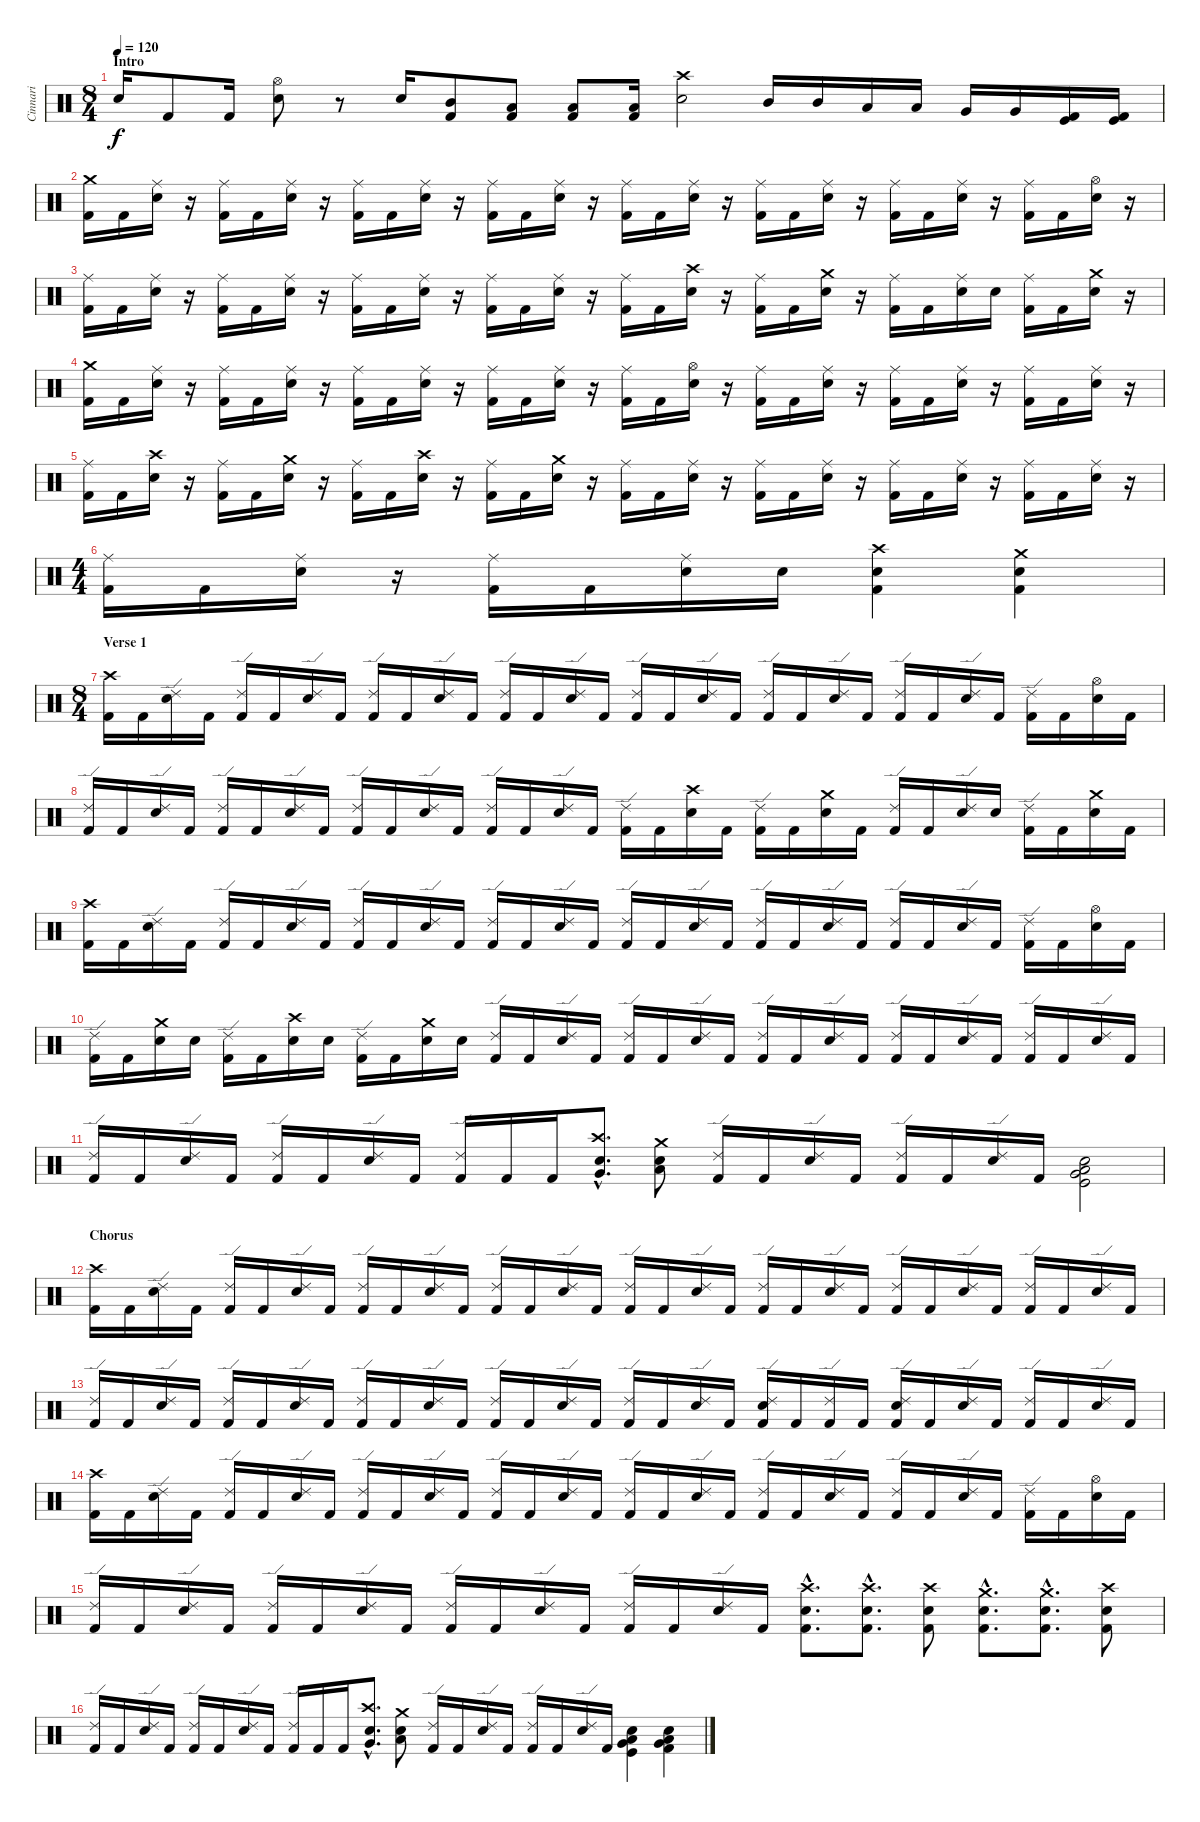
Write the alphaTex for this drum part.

\track ("Cinnari" "Cinnari") {instrument percussion}
\staff {score}
\articulation defaults
\ts (8 4)
\section ("" "Intro")
\tempo 120
\clef neutral
\ks c "Snare (hit) 2".16{dy f} "Kick (hit) 2".8 "Kick (hit) 2".16
("Hi-Hat (open)" "Snare (hit) 2").8 r.8 "Snare (hit) 2".16 ("Mid Tom (hit)" "Kick (hit) 2").8 ("Low Tom (hit)" "Kick (hit) 2").8 ("Low Tom (hit)" "Kick (hit) 2").8 ("Low Tom (hit)" "Kick (hit) 2").16 ("Crash high (hit)" "Snare (hit) 2").2 "Mid Tom (hit)".16 "Mid Tom (hit)".16 "Low Tom (hit)".16 "Low Tom (hit)".16 "Very Low Tom (hit)".16 "Very Low Tom (hit)".16 ("Kick (hit)" "Kick (hit) 2").16 ("Kick (hit)" "Kick (hit) 2").16 |
("Crash medium (hit)" "Kick (hit) 2").16 "Kick (hit) 2".16 ("Ride (middle)" "Snare (hit) 2").16 r.16 ("Ride (middle)" "Kick (hit) 2").16 "Kick (hit) 2".16 ("Ride (middle)" "Snare (hit) 2").16 r.16 ("Ride (middle)" "Kick (hit) 2").16 "Kick (hit) 2".16 ("Ride (middle)" "Snare (hit) 2").16 r.16 ("Ride (middle)" "Kick (hit) 2").16 "Kick (hit) 2".16 ("Ride (middle)" "Snare (hit) 2").16 r.16 ("Ride (middle)" "Kick (hit) 2").16 "Kick (hit) 2".16 ("Ride (middle)" "Snare (hit) 2").16 r.16 ("Ride (middle)" "Kick (hit) 2").16 "Kick (hit) 2".16 ("Ride (middle)" "Snare (hit) 2").16 r.16 ("Ride (middle)" "Kick (hit) 2").16 "Kick (hit) 2".16 ("Ride (middle)" "Snare (hit) 2").16 r.16 ("Ride (middle)" "Kick (hit) 2").16 "Kick (hit) 2".16 ("Hi-Hat (open)" "Snare (hit) 2").16 r.16 |
("Ride (middle)" "Kick (hit) 2").16 "Kick (hit) 2".16 ("Ride (middle)" "Snare (hit) 2").16 r.16 ("Ride (middle)" "Kick (hit) 2").16 "Kick (hit) 2".16 ("Ride (middle)" "Snare (hit) 2").16 r.16 ("Ride (middle)" "Kick (hit) 2").16 "Kick (hit) 2".16 ("Ride (middle)" "Snare (hit) 2").16 r.16 ("Ride (middle)" "Kick (hit) 2").16 "Kick (hit) 2".16 ("Ride (middle)" "Snare (hit) 2").16 r.16 ("Ride (middle)" "Kick (hit) 2").16 "Kick (hit) 2".16 ("Crash high (hit)" "Snare (hit) 2").16 r.16 ("Ride (middle)" "Kick (hit) 2").16 "Kick (hit) 2".16 ("Crash medium (hit)" "Snare (hit) 2").16 r.16 ("Ride (middle)" "Kick (hit) 2").16 "Kick (hit) 2".16 ("Ride (middle)" "Snare (hit) 2").16 "Snare (hit) 2".16 ("Ride (middle)" "Kick (hit) 2").16 "Kick (hit) 2".16 ("Crash medium (hit)" "Snare (hit) 2").16 r.16 |
("Crash medium (hit)" "Kick (hit) 2").16 "Kick (hit) 2".16 ("Ride (middle)" "Snare (hit) 2").16 r.16 ("Ride (middle)" "Kick (hit) 2").16 "Kick (hit) 2".16 ("Ride (middle)" "Snare (hit) 2").16 r.16 ("Ride (middle)" "Kick (hit) 2").16 "Kick (hit) 2".16 ("Ride (middle)" "Snare (hit) 2").16 r.16 ("Ride (middle)" "Kick (hit) 2").16 "Kick (hit) 2".16 ("Ride (middle)" "Snare (hit) 2").16 r.16 ("Ride (middle)" "Kick (hit) 2").16 "Kick (hit) 2".16 ("Hi-Hat (open)" "Snare (hit) 2").16 r.16 ("Ride (middle)" "Kick (hit) 2").16 "Kick (hit) 2".16 ("Ride (middle)" "Snare (hit) 2").16 r.16 ("Ride (middle)" "Kick (hit) 2").16 "Kick (hit) 2".16 ("Ride (middle)" "Snare (hit) 2").16 r.16 ("Ride (middle)" "Kick (hit) 2").16 "Kick (hit) 2".16 ("Ride (middle)" "Snare (hit) 2").16 r.16 |
("Ride (middle)" "Kick (hit) 2").16 "Kick (hit) 2".16 ("Crash high (hit)" "Snare (hit) 2").16 r.16 ("Ride (middle)" "Kick (hit) 2").16 "Kick (hit) 2".16 ("Crash medium (hit)" "Snare (hit) 2").16 r.16 ("Ride (middle)" "Kick (hit) 2").16 "Kick (hit) 2".16 ("Crash high (hit)" "Snare (hit) 2").16 r.16 ("Ride (middle)" "Kick (hit) 2").16 "Kick (hit) 2".16 ("Crash medium (hit)" "Snare (hit) 2").16 r.16 ("Ride (middle)" "Kick (hit) 2").16 "Kick (hit) 2".16 ("Ride (middle)" "Snare (hit) 2").16 r.16 ("Ride (middle)" "Kick (hit) 2").16 "Kick (hit) 2".16 ("Ride (middle)" "Snare (hit) 2").16 r.16 ("Ride (middle)" "Kick (hit) 2").16 "Kick (hit) 2".16 ("Ride (middle)" "Snare (hit) 2").16 r.16 ("Ride (middle)" "Kick (hit) 2").16 "Kick (hit) 2".16 ("Ride (middle)" "Snare (hit) 2").16 r.16 |
\ts (4 4)
("Ride (middle)" "Kick (hit) 2").16 "Kick (hit) 2".16 ("Ride (middle)" "Snare (hit) 2").16 r.16 ("Ride (middle)" "Kick (hit) 2").16 "Kick (hit) 2".16 ("Ride (middle)" "Snare (hit) 2").16 "Snare (hit) 2".16 ("Crash high (hit)" "Snare (hit) 2" "Kick (hit) 2").4 ("Crash medium (hit)" "Snare (hit) 2" "Kick (hit) 2").4 |
\ts (8 4)
\section ("" "Verse 1")
("Crash high (hit)" "Kick (hit) 2").16 "Kick (hit) 2".16 ("Ride (edge) 2" "Snare (hit) 2").16 "Kick (hit) 2".16 ("Ride (edge) 2" "Kick (hit) 2").16 "Kick (hit) 2".16 ("Ride (edge) 2" "Snare (hit) 2").16 "Kick (hit) 2".16 ("Ride (edge) 2" "Kick (hit) 2").16 "Kick (hit) 2".16 ("Ride (edge) 2" "Snare (hit) 2").16 "Kick (hit) 2".16 ("Ride (edge) 2" "Kick (hit) 2").16 "Kick (hit) 2".16 ("Ride (edge) 2" "Snare (hit) 2").16 "Kick (hit) 2".16 ("Ride (edge) 2" "Kick (hit) 2").16 "Kick (hit) 2".16 ("Ride (edge) 2" "Snare (hit) 2").16 "Kick (hit) 2".16 ("Ride (edge) 2" "Kick (hit) 2").16 "Kick (hit) 2".16 ("Ride (edge) 2" "Snare (hit) 2").16 "Kick (hit) 2".16 ("Ride (edge) 2" "Kick (hit) 2").16 "Kick (hit) 2".16 ("Ride (edge) 2" "Snare (hit) 2").16 "Kick (hit) 2".16 ("Ride (edge) 2" "Kick (hit) 2").16 "Kick (hit) 2".16 ("Hi-Hat (open)" "Snare (hit) 2").16 "Kick (hit) 2".16 |
("Ride (edge) 2" "Kick (hit) 2").16 "Kick (hit) 2".16 ("Ride (edge) 2" "Snare (hit) 2").16 "Kick (hit) 2".16 ("Ride (edge) 2" "Kick (hit) 2").16 "Kick (hit) 2".16 ("Ride (edge) 2" "Snare (hit) 2").16 "Kick (hit) 2".16 ("Ride (edge) 2" "Kick (hit) 2").16 "Kick (hit) 2".16 ("Ride (edge) 2" "Snare (hit) 2").16 "Kick (hit) 2".16 ("Ride (edge) 2" "Kick (hit) 2").16 "Kick (hit) 2".16 ("Ride (edge) 2" "Snare (hit) 2").16 "Kick (hit) 2".16 ("Ride (edge) 2" "Kick (hit) 2").16 "Kick (hit) 2".16 ("Crash high (hit)" "Snare (hit) 2").16 "Kick (hit) 2".16 ("Ride (edge) 2" "Kick (hit) 2").16 "Kick (hit) 2".16 ("Crash medium (hit)" "Snare (hit) 2").16 "Kick (hit) 2".16 ("Ride (edge) 2" "Kick (hit) 2").16 "Kick (hit) 2".16 ("Ride (edge) 2" "Snare (hit) 2").16 "Snare (hit) 2".16 ("Ride (edge) 2" "Kick (hit) 2").16 "Kick (hit) 2".16 ("Crash medium (hit)" "Snare (hit) 2").16 "Kick (hit) 2".16 |
("Crash high (hit)" "Kick (hit) 2").16 "Kick (hit) 2".16 ("Ride (edge) 2" "Snare (hit) 2").16 "Kick (hit) 2".16 ("Ride (edge) 2" "Kick (hit) 2").16 "Kick (hit) 2".16 ("Ride (edge) 2" "Snare (hit) 2").16 "Kick (hit) 2".16 ("Ride (edge) 2" "Kick (hit) 2").16 "Kick (hit) 2".16 ("Ride (edge) 2" "Snare (hit) 2").16 "Kick (hit) 2".16 ("Ride (edge) 2" "Kick (hit) 2").16 "Kick (hit) 2".16 ("Ride (edge) 2" "Snare (hit) 2").16 "Kick (hit) 2".16 ("Ride (edge) 2" "Kick (hit) 2").16 "Kick (hit) 2".16 ("Ride (edge) 2" "Snare (hit) 2").16 "Kick (hit) 2".16 ("Ride (edge) 2" "Kick (hit) 2").16 "Kick (hit) 2".16 ("Ride (edge) 2" "Snare (hit) 2").16 "Kick (hit) 2".16 ("Ride (edge) 2" "Kick (hit) 2").16 "Kick (hit) 2".16 ("Ride (edge) 2" "Snare (hit) 2").16 "Kick (hit) 2".16 ("Ride (edge) 2" "Kick (hit) 2").16 "Kick (hit) 2".16 ("Hi-Hat (open)" "Snare (hit) 2").16 "Kick (hit) 2".16 |
("Ride (edge) 2" "Kick (hit) 2").16 "Kick (hit) 2".16 ("Crash medium (hit)" "Snare (hit) 2").16 "Snare (hit) 2".16 ("Ride (edge) 2" "Kick (hit) 2").16 "Kick (hit) 2".16 ("Crash high (hit)" "Snare (hit) 2").16 "Snare (hit) 2".16 ("Ride (edge) 2" "Kick (hit) 2").16 "Kick (hit) 2".16 ("Crash medium (hit)" "Snare (hit) 2").16 "Snare (hit) 2".16 ("Ride (edge) 2" "Kick (hit) 2").16 "Kick (hit) 2".16 ("Ride (edge) 2" "Snare (hit) 2").16 "Kick (hit) 2".16 ("Ride (edge) 2" "Kick (hit) 2").16 "Kick (hit) 2".16 ("Ride (edge) 2" "Snare (hit) 2").16 "Kick (hit) 2".16 ("Ride (edge) 2" "Kick (hit) 2").16 "Kick (hit) 2".16 ("Ride (edge) 2" "Snare (hit) 2").16 "Kick (hit) 2".16 ("Ride (edge) 2" "Kick (hit) 2").16 "Kick (hit) 2".16 ("Ride (edge) 2" "Snare (hit) 2").16 "Kick (hit) 2".16 ("Ride (edge) 2" "Kick (hit) 2").16 "Kick (hit) 2".16 ("Ride (edge) 2" "Snare (hit) 2").16 "Kick (hit) 2".16 |
("Ride (edge) 2" "Kick (hit) 2").16 "Kick (hit) 2".16 ("Ride (edge) 2" "Snare (hit) 2").16 "Kick (hit) 2".16 ("Ride (edge) 2" "Kick (hit) 2").16 "Kick (hit) 2".16 ("Ride (edge) 2" "Snare (hit) 2").16 "Kick (hit) 2".16 ("Ride (edge) 2" "Kick (hit) 2").16 "Kick (hit) 2".16 "Kick (hit) 2".16 ("Crash high (hit)"{hac} "Very Low Tom (hit)"{hac} "Snare (hit) 2"{hac}).8{d} ("Crash medium (hit)" "Low Floor Tom (hit)" "Snare (hit) 2").8 ("Ride (edge) 2" "Kick (hit) 2").16 "Kick (hit) 2".16 ("Ride (edge) 2" "Snare (hit) 2").16 "Kick (hit) 2".16 ("Ride (edge) 2" "Kick (hit) 2").16 "Kick (hit) 2".16 ("Ride (edge) 2" "Snare (hit) 2").16 "Kick (hit) 2".16 ("Very Low Tom (hit)" "Low Floor Tom (hit)" "Snare (hit) 2" "Kick (hit)").2 |
\section ("" "Chorus")
("Crash high (hit)" "Kick (hit) 2").16 "Kick (hit) 2".16 ("Ride (edge) 2" "Snare (hit) 2").16 "Kick (hit) 2".16 ("Ride (edge) 2" "Kick (hit) 2").16 "Kick (hit) 2".16 ("Ride (edge) 2" "Snare (hit) 2").16 "Kick (hit) 2".16 ("Ride (edge) 2" "Kick (hit) 2").16 "Kick (hit) 2".16 ("Ride (edge) 2" "Snare (hit) 2").16 "Kick (hit) 2".16 ("Ride (edge) 2" "Kick (hit) 2").16 "Kick (hit) 2".16 ("Ride (edge) 2" "Snare (hit) 2").16 "Kick (hit) 2".16 ("Ride (edge) 2" "Kick (hit) 2").16 "Kick (hit) 2".16 ("Ride (edge) 2" "Snare (hit) 2").16 "Kick (hit) 2".16 ("Ride (edge) 2" "Kick (hit) 2").16 "Kick (hit) 2".16 ("Ride (edge) 2" "Snare (hit) 2").16 "Kick (hit) 2".16 ("Ride (edge) 2" "Kick (hit) 2").16 "Kick (hit) 2".16 ("Ride (edge) 2" "Snare (hit) 2").16 "Kick (hit) 2".16 ("Ride (edge) 2" "Kick (hit) 2").16 "Kick (hit) 2".16 ("Ride (edge) 2" "Snare (hit) 2").16 "Kick (hit) 2".16 |
("Ride (edge) 2" "Kick (hit) 2").16 "Kick (hit) 2".16 ("Ride (edge) 2" "Snare (hit) 2").16 "Kick (hit) 2".16 ("Ride (edge) 2" "Kick (hit) 2").16 "Kick (hit) 2".16 ("Ride (edge) 2" "Snare (hit) 2").16 "Kick (hit) 2".16 ("Ride (edge) 2" "Kick (hit) 2").16 "Kick (hit) 2".16 ("Ride (edge) 2" "Snare (hit) 2").16 "Kick (hit) 2".16 ("Ride (edge) 2" "Kick (hit) 2").16 "Kick (hit) 2".16 ("Ride (edge) 2" "Snare (hit) 2").16 "Kick (hit) 2".16 ("Ride (edge) 2" "Kick (hit) 2").16 "Kick (hit) 2".16 ("Ride (edge) 2" "Snare (hit) 2").16 "Kick (hit) 2".16 ("Ride (edge) 2" "Snare (hit) 2" "Kick (hit) 2").16 "Kick (hit) 2".16 ("Ride (edge) 2" "Kick (hit) 2").16 "Kick (hit) 2".16 ("Ride (edge) 2" "Snare (hit) 2" "Kick (hit) 2").16 "Kick (hit) 2".16 ("Ride (edge) 2" "Snare (hit) 2").16 "Kick (hit) 2".16 ("Ride (edge) 2" "Kick (hit) 2").16 "Kick (hit) 2".16 ("Ride (edge) 2" "Snare (hit) 2").16 "Kick (hit) 2".16 |
("Crash high (hit)" "Kick (hit) 2").16 "Kick (hit) 2".16 ("Ride (edge) 2" "Snare (hit) 2").16 "Kick (hit) 2".16 ("Ride (edge) 2" "Kick (hit) 2").16 "Kick (hit) 2".16 ("Ride (edge) 2" "Snare (hit) 2").16 "Kick (hit) 2".16 ("Ride (edge) 2" "Kick (hit) 2").16 "Kick (hit) 2".16 ("Ride (edge) 2" "Snare (hit) 2").16 "Kick (hit) 2".16 ("Ride (edge) 2" "Kick (hit) 2").16 "Kick (hit) 2".16 ("Ride (edge) 2" "Snare (hit) 2").16 "Kick (hit) 2".16 ("Ride (edge) 2" "Kick (hit) 2").16 "Kick (hit) 2".16 ("Ride (edge) 2" "Snare (hit) 2").16 "Kick (hit) 2".16 ("Ride (edge) 2" "Kick (hit) 2").16 "Kick (hit) 2".16 ("Ride (edge) 2" "Snare (hit) 2").16 "Kick (hit) 2".16 ("Ride (edge) 2" "Kick (hit) 2").16 "Kick (hit) 2".16 ("Ride (edge) 2" "Snare (hit) 2").16 "Kick (hit) 2".16 ("Ride (edge) 2" "Kick (hit) 2").16 "Kick (hit) 2".16 ("Hi-Hat (open)" "Snare (hit) 2").16 "Kick (hit) 2".16 |
("Ride (edge) 2" "Kick (hit) 2").16 "Kick (hit) 2".16 ("Ride (edge) 2" "Snare (hit) 2").16 "Kick (hit) 2".16 ("Ride (edge) 2" "Kick (hit) 2").16 "Kick (hit) 2".16 ("Ride (edge) 2" "Snare (hit) 2").16 "Kick (hit) 2".16 ("Ride (edge) 2" "Kick (hit) 2").16 "Kick (hit) 2".16 ("Ride (edge) 2" "Snare (hit) 2").16 "Kick (hit) 2".16 ("Ride (edge) 2" "Kick (hit) 2").16 "Kick (hit) 2".16 ("Ride (edge) 2" "Snare (hit) 2").16 "Kick (hit) 2".16 ("Crash high (hit)"{hac} "Snare (hit) 2"{hac} "Kick (hit) 2"{hac}).8{d} ("Crash high (hit)"{hac} "Snare (hit) 2"{hac} "Kick (hit) 2"{hac}).8{d} ("Crash high (hit)" "Snare (hit) 2" "Kick (hit) 2").8 ("Crash medium (hit)"{hac} "Snare (hit) 2"{hac} "Kick (hit) 2"{hac}).8{d} ("Crash medium (hit)"{hac} "Snare (hit) 2"{hac} "Kick (hit) 2"{hac}).8{d} ("Crash high (hit)" "Snare (hit) 2" "Kick (hit) 2").8 |
("Ride (edge) 2" "Kick (hit) 2").16 "Kick (hit) 2".16 ("Ride (edge) 2" "Snare (hit) 2").16 "Kick (hit) 2".16 ("Ride (edge) 2" "Kick (hit) 2").16 "Kick (hit) 2".16 ("Ride (edge) 2" "Snare (hit) 2").16 "Kick (hit) 2".16 ("Ride (edge) 2" "Kick (hit) 2").16 "Kick (hit) 2".16 "Kick (hit) 2".16 ("Crash high (hit)"{hac} "Very Low Tom (hit)"{hac} "Snare (hit) 2"{hac}).8{d} ("Crash medium (hit)" "Low Floor Tom (hit)" "Snare (hit) 2").8 ("Ride (edge) 2" "Kick (hit) 2").16 "Kick (hit) 2".16 ("Ride (edge) 2" "Snare (hit) 2").16 "Kick (hit) 2".16 ("Ride (edge) 2" "Kick (hit) 2").16 "Kick (hit) 2".16 ("Ride (edge) 2" "Snare (hit) 2").16 "Kick (hit) 2".16 ("Very Low Tom (hit)" "Low Floor Tom (hit)" "Snare (hit) 2" "Kick (hit)").4 ("Low Floor Tom (hit)" "Very Low Tom (hit)" "Snare (hit) 2" "Kick (hit) 2").4
